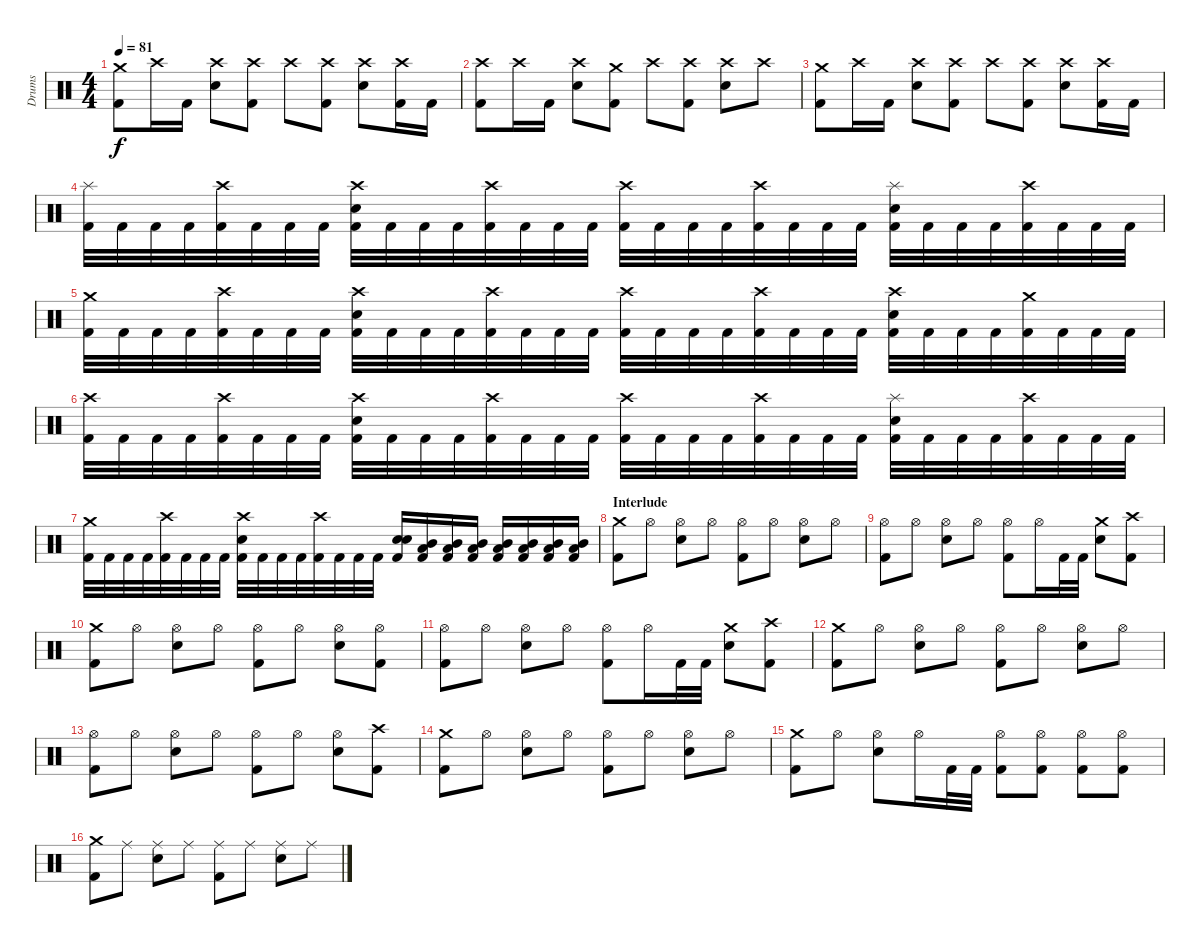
\track ("Drums" "Drums") {instrument percussion}
\staff {score}
\articulation defaults
\ts (4 4)
\tempo 81
\clef neutral
\ks c
("Crash medium (hit)" "Kick (hit) 2").8{dy f} "Crash high (hit)".16 "Kick (hit) 2".16 ("Crash high (hit)" "Electric Snare (hit)").8 ("Crash high (hit)" "Kick (hit) 2").8 "Crash high (hit)".8 ("Crash high (hit)" "Kick (hit) 2").8 ("Crash high (hit)" "Electric Snare (hit)").8 ("Crash high (hit)" "Kick (hit) 2").16 "Kick (hit) 2".16 |
("Crash high (hit)" "Kick (hit) 2").8 "Crash high (hit)".16 "Kick (hit) 2".16 ("Crash high (hit)" "Electric Snare (hit)").8 ("Crash medium (hit)" "Kick (hit) 2").8 "Crash high (hit)".8 ("Crash high (hit)" "Kick (hit) 2").8 ("Crash high (hit)" "Electric Snare (hit)").8 "Crash high (hit)".8 |
("Crash medium (hit)" "Kick (hit) 2").8 "Crash high (hit)".16 "Kick (hit) 2".16 ("Crash high (hit)" "Electric Snare (hit)").8 ("Crash high (hit)" "Kick (hit) 2").8 "Crash high (hit)".8 ("Crash high (hit)" "Kick (hit) 2").8 ("Crash high (hit)" "Electric Snare (hit)").8 ("Crash high (hit)" "Kick (hit) 2").16 "Kick (hit) 2".16 |
("Splash (hit)" "Kick (hit) 2").32 "Kick (hit) 2".32 "Kick (hit) 2".32 "Kick (hit) 2".32 ("Crash high (hit)" "Kick (hit) 2").32 "Kick (hit) 2".32 "Kick (hit) 2".32 "Kick (hit) 2".32 ("Crash high (hit)" "Electric Snare (hit)" "Kick (hit) 2").32 "Kick (hit) 2".32 "Kick (hit) 2".32 "Kick (hit) 2".32 ("Crash high (hit)" "Kick (hit) 2").32 "Kick (hit) 2".32 "Kick (hit) 2".32 "Kick (hit) 2".32 ("Crash high (hit)" "Kick (hit) 2").32 "Kick (hit) 2".32 "Kick (hit) 2".32 "Kick (hit) 2".32 ("Crash high (hit)" "Kick (hit) 2").32 "Kick (hit) 2".32 "Kick (hit) 2".32 "Kick (hit) 2".32 ("Splash (hit)" "Electric Snare (hit)" "Kick (hit) 2").32 "Kick (hit) 2".32 "Kick (hit) 2".32 "Kick (hit) 2".32 ("Crash high (hit)" "Kick (hit) 2").32 "Kick (hit) 2".32 "Kick (hit) 2".32 "Kick (hit) 2".32 |
("Crash medium (hit)" "Kick (hit) 2").32 "Kick (hit) 2".32 "Kick (hit) 2".32 "Kick (hit) 2".32 ("Crash high (hit)" "Kick (hit) 2").32 "Kick (hit) 2".32 "Kick (hit) 2".32 "Kick (hit) 2".32 ("Crash high (hit)" "Electric Snare (hit)" "Kick (hit) 2").32 "Kick (hit) 2".32 "Kick (hit) 2".32 "Kick (hit) 2".32 ("Crash high (hit)" "Kick (hit) 2").32 "Kick (hit) 2".32 "Kick (hit) 2".32 "Kick (hit) 2".32 ("Crash high (hit)" "Kick (hit) 2").32 "Kick (hit) 2".32 "Kick (hit) 2".32 "Kick (hit) 2".32 ("Crash high (hit)" "Kick (hit) 2").32 "Kick (hit) 2".32 "Kick (hit) 2".32 "Kick (hit) 2".32 ("Crash high (hit)" "Electric Snare (hit)" "Kick (hit) 2").32 "Kick (hit) 2".32 "Kick (hit) 2".32 "Kick (hit) 2".32 ("Crash medium (hit)" "Kick (hit) 2").32 "Kick (hit) 2".32 "Kick (hit) 2".32 "Kick (hit) 2".32 |
("Crash high (hit)" "Kick (hit) 2").32 "Kick (hit) 2".32 "Kick (hit) 2".32 "Kick (hit) 2".32 ("Crash high (hit)" "Kick (hit) 2").32 "Kick (hit) 2".32 "Kick (hit) 2".32 "Kick (hit) 2".32 ("Crash high (hit)" "Electric Snare (hit)" "Kick (hit) 2").32 "Kick (hit) 2".32 "Kick (hit) 2".32 "Kick (hit) 2".32 ("Crash high (hit)" "Kick (hit) 2").32 "Kick (hit) 2".32 "Kick (hit) 2".32 "Kick (hit) 2".32 ("Crash high (hit)" "Kick (hit) 2").32 "Kick (hit) 2".32 "Kick (hit) 2".32 "Kick (hit) 2".32 ("Crash high (hit)" "Kick (hit) 2").32 "Kick (hit) 2".32 "Kick (hit) 2".32 "Kick (hit) 2".32 ("Splash (hit)" "Electric Snare (hit)" "Kick (hit) 2").32 "Kick (hit) 2".32 "Kick (hit) 2".32 "Kick (hit) 2".32 ("Crash high (hit)" "Kick (hit) 2").32 "Kick (hit) 2".32 "Kick (hit) 2".32 "Kick (hit) 2".32 |
("Crash medium (hit)" "Kick (hit) 2").32 "Kick (hit) 2".32 "Kick (hit) 2".32 "Kick (hit) 2".32 ("Crash high (hit)" "Kick (hit) 2").32 "Kick (hit) 2".32 "Kick (hit) 2".32 "Kick (hit) 2".32 ("Crash high (hit)" "Electric Snare (hit)" "Kick (hit) 2").32 "Kick (hit) 2".32 "Kick (hit) 2".32 "Kick (hit) 2".32 ("Crash high (hit)" "Kick (hit) 2").32 "Kick (hit) 2".32 "Kick (hit) 2".32 "Kick (hit) 2".32 ("Electric Snare (hit)" "Electric Snare (hit)" "Kick (hit) 2").16 ("Low Tom (hit)" "Mid Tom (hit)" "Kick (hit) 2").16 ("Low Tom (hit)" "Mid Tom (hit)" "Kick (hit) 2").16 ("Low Tom (hit)" "Mid Tom (hit)" "Kick (hit) 2").16 ("Low Tom (hit)" "Mid Tom (hit)" "Kick (hit) 2").16 ("Low Tom (hit)" "Mid Tom (hit)" "Kick (hit) 2").16 ("Low Tom (hit)" "Mid Tom (hit)" "Kick (hit) 2").16 ("Low Tom (hit)" "Mid Tom (hit)" "Kick (hit) 2").16 |
\section ("" "Interlude")
("Crash medium (hit)" "Kick (hit) 2").8 "Hi-Hat (open)".8 ("Hi-Hat (open)" "Electric Snare (hit)").8 "Hi-Hat (open)".8 ("Hi-Hat (open)" "Kick (hit) 2").8 "Hi-Hat (open)".8 ("Hi-Hat (open)" "Electric Snare (hit)").8 "Hi-Hat (open)".8 |
("Hi-Hat (open)" "Kick (hit) 2").8 "Hi-Hat (open)".8 ("Hi-Hat (open)" "Electric Snare (hit)").8 "Hi-Hat (open)".8 ("Hi-Hat (open)" "Kick (hit) 2").8 "Hi-Hat (open)".16 "Kick (hit) 2".32 "Kick (hit) 2".32 ("Crash medium (hit)" "Electric Snare (hit)").8 ("Crash high (hit)" "Kick (hit) 2").8 |
("Crash medium (hit)" "Kick (hit) 2").8 "Hi-Hat (open)".8 ("Hi-Hat (open)" "Electric Snare (hit)").8 "Hi-Hat (open)".8 ("Hi-Hat (open)" "Kick (hit) 2").8 "Hi-Hat (open)".8 ("Hi-Hat (open)" "Electric Snare (hit)").8 ("Hi-Hat (open)" "Kick (hit) 2").8 |
("Hi-Hat (open)" "Kick (hit) 2").8 "Hi-Hat (open)".8 ("Hi-Hat (open)" "Electric Snare (hit)").8 "Hi-Hat (open)".8 ("Hi-Hat (open)" "Kick (hit) 2").8 "Hi-Hat (open)".16 "Kick (hit) 2".32 "Kick (hit) 2".32 ("Crash medium (hit)" "Electric Snare (hit)").8 ("Crash high (hit)" "Kick (hit) 2").8 |
("Crash medium (hit)" "Kick (hit) 2").8 "Hi-Hat (open)".8 ("Hi-Hat (open)" "Electric Snare (hit)").8 "Hi-Hat (open)".8 ("Hi-Hat (open)" "Kick (hit) 2").8 "Hi-Hat (open)".8 ("Hi-Hat (open)" "Electric Snare (hit)").8 "Hi-Hat (open)".8 |
("Hi-Hat (open)" "Kick (hit) 2").8 "Hi-Hat (open)".8 ("Hi-Hat (open)" "Electric Snare (hit)").8 "Hi-Hat (open)".8 ("Hi-Hat (open)" "Kick (hit) 2").8 "Hi-Hat (open)".8 ("Hi-Hat (open)" "Electric Snare (hit)").8 ("Crash high (hit)" "Kick (hit) 2").8 |
("Crash medium (hit)" "Kick (hit) 2").8 "Hi-Hat (open)".8 ("Hi-Hat (open)" "Electric Snare (hit)").8 "Hi-Hat (open)".8 ("Hi-Hat (open)" "Kick (hit) 2").8 "Hi-Hat (open)".8 ("Hi-Hat (open)" "Electric Snare (hit)").8 "Hi-Hat (open)".8 |
("Crash medium (hit)" "Kick (hit) 2").8 "Hi-Hat (open)".8 ("Hi-Hat (open)" "Electric Snare (hit)").8 "Hi-Hat (open)".16 "Kick (hit) 2".32 "Kick (hit) 2".32 ("Hi-Hat (open)" "Kick (hit) 2").8 ("Hi-Hat (open)" "Kick (hit) 2").8 ("Hi-Hat (open)" "Kick (hit) 2").8 ("Hi-Hat (open)" "Kick (hit) 2").8 |
("Crash medium (hit)" "Kick (hit) 2").8 "Ride (middle)".8 ("Ride (middle)" "Electric Snare (hit)").8 "Ride (middle)".8 ("Ride (middle)" "Kick (hit) 2").8 "Ride (middle)".8 ("Ride (middle)" "Electric Snare (hit)").8 "Ride (middle)".8
